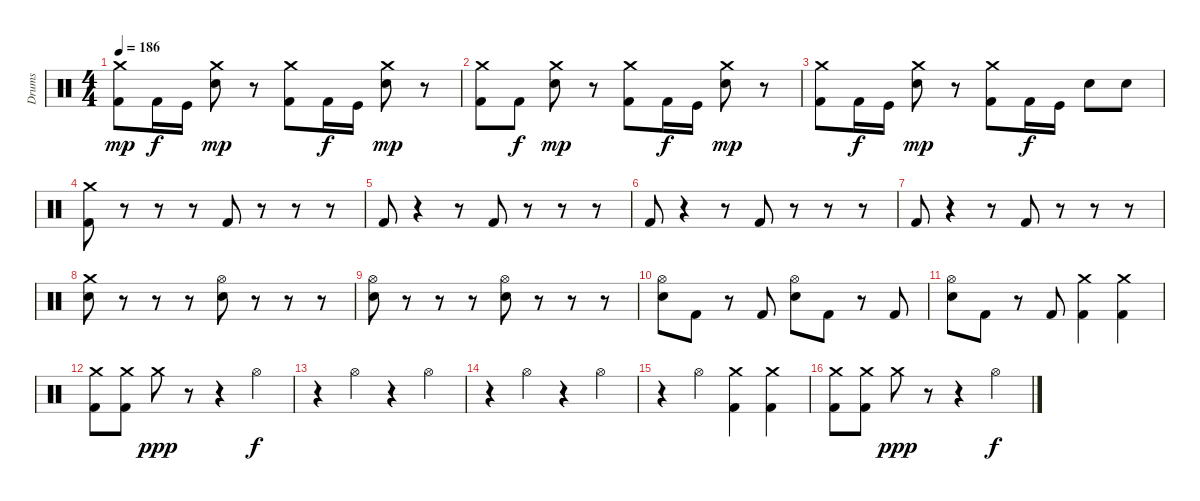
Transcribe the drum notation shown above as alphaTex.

\track ("Drums" "Drums") {instrument percussion}
\staff {score}
\articulation defaults
\ts (4 4)
\tempo 186
\clef neutral
\ks c
("Crash medium (hit)" "Kick (hit) 2").8{dy mp} "Kick (hit) 2".16{dy f} "Kick (hit)".16 ("Crash medium (hit)" "Snare (hit) 2").8{dy mp} r.8 ("Crash medium (hit)" "Kick (hit) 2").8 "Kick (hit) 2".16{dy f} "Kick (hit)".16 ("Crash medium (hit)" "Snare (hit) 2").8{dy mp} r.8 |
("Crash medium (hit)" "Kick (hit) 2").8 "Kick (hit) 2".8{dy f} ("Crash medium (hit)" "Snare (hit) 2").8{dy mp} r.8 ("Crash medium (hit)" "Kick (hit) 2").8 "Kick (hit) 2".16{dy f} "Kick (hit)".16 ("Crash medium (hit)" "Snare (hit) 2").8{dy mp} r.8 |
("Crash medium (hit)" "Kick (hit) 2").8 "Kick (hit) 2".16{dy f} "Kick (hit)".16 ("Crash medium (hit)" "Snare (hit) 2").8{dy mp} r.8 ("Crash medium (hit)" "Kick (hit) 2").8 "Kick (hit) 2".16{dy f} "Kick (hit)".16 "Snare (hit) 2".8 "Snare (hit) 2".8 |
("Crash medium (hit)" "Kick (hit) 2").8 r.8 r.8 r.8 "Kick (hit) 2".8 r.8 r.8 r.8 |
"Kick (hit) 2".8 r.4 r.8 "Kick (hit) 2".8 r.8 r.8 r.8 |
"Kick (hit) 2".8 r.4 r.8 "Kick (hit) 2".8 r.8 r.8 r.8 |
"Kick (hit) 2".8 r.4 r.8 "Kick (hit) 2".8 r.8 r.8 r.8 |
("Crash medium (hit)" "Snare (hit) 2").8 r.8 r.8 r.8 ("Hi-Hat (open)" "Snare (hit) 2").8 r.8 r.8 r.8 |
("Hi-Hat (open)" "Snare (hit) 2").8 r.8 r.8 r.8 ("Hi-Hat (open)" "Snare (hit) 2").8 r.8 r.8 r.8 |
("Hi-Hat (open)" "Snare (hit) 2").8 "Kick (hit) 2".8 r.8 "Kick (hit) 2".8 ("Hi-Hat (open)" "Snare (hit) 2").8 "Kick (hit) 2".8 r.8 "Kick (hit) 2".8 |
("Hi-Hat (open)" "Snare (hit) 2").8 "Kick (hit) 2".8 r.8 "Kick (hit) 2".8 ("Crash medium (hit)" "Kick (hit) 2").4 ("Crash medium (hit)" "Kick (hit) 2").4 |
("Crash medium (hit)" "Kick (hit) 2").8 ("Crash medium (hit)" "Kick (hit) 2").8 "Crash medium (hit)".8{dy ppp} r.8 r.4 "Hi-Hat (open)".4{dy f} |
r.4 "Hi-Hat (open)".4 r.4 "Hi-Hat (open)".4 |
r.4 "Hi-Hat (open)".4 r.4 "Hi-Hat (open)".4 |
r.4 "Hi-Hat (open)".4 ("Crash medium (hit)" "Kick (hit) 2").4 ("Crash medium (hit)" "Kick (hit) 2").4 |
("Crash medium (hit)" "Kick (hit) 2").8 ("Crash medium (hit)" "Kick (hit) 2").8 "Crash medium (hit)".8{dy ppp} r.8 r.4 "Hi-Hat (open)".4{dy f}
